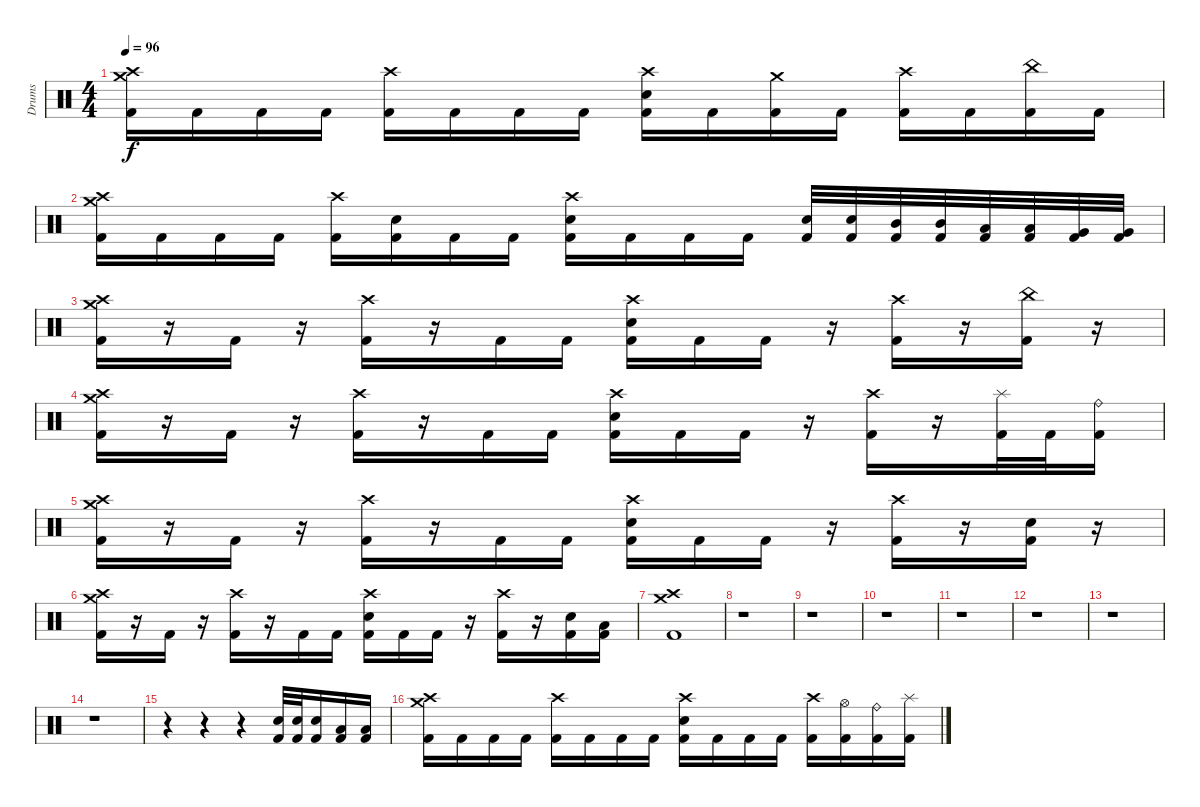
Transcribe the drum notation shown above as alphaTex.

\track ("Drums" "Drums") {instrument percussion}
\staff {score}
\articulation defaults
\ts (4 4)
\tempo 96
\clef neutral
\ks c
("Crash high (hit)" "Crash medium (hit)" "Kick (hit) 2").16{dy f} "Kick (hit) 2".16 "Kick (hit) 2".16 "Kick (hit) 2".16 ("Crash high (hit)" "Kick (hit) 2").16 "Kick (hit) 2".16 "Kick (hit) 2".16 "Kick (hit) 2".16 ("Crash high (hit)" "Electric Snare (hit)" "Kick (hit) 2").16 "Kick (hit) 2".16 ("Crash medium (hit)" "Kick (hit) 2").16 "Kick (hit) 2".16 ("Crash high (hit)" "Kick (hit) 2").16 "Kick (hit) 2".16 ("China (hit)" "Kick (hit) 2").16 "Kick (hit) 2".16 |
("Crash high (hit)" "Crash medium (hit)" "Kick (hit) 2").16 "Kick (hit) 2".16 "Kick (hit) 2".16 "Kick (hit) 2".16 ("Crash high (hit)" "Kick (hit) 2").16 ("Electric Snare (hit)" "Kick (hit) 2").16 "Kick (hit) 2".16 "Kick (hit) 2".16 ("Crash high (hit)" "Electric Snare (hit)" "Kick (hit) 2").16 "Kick (hit) 2".16 "Kick (hit) 2".16 "Kick (hit) 2".16 ("Electric Snare (hit)" "Kick (hit) 2").32 ("Electric Snare (hit)" "Kick (hit) 2").32 ("Mid Tom (hit)" "Kick (hit) 2").32 ("Mid Tom (hit)" "Kick (hit) 2").32 ("Low Tom (hit)" "Kick (hit) 2").32 ("Low Tom (hit)" "Kick (hit) 2").32 ("Very Low Tom (hit)" "Kick (hit) 2").32 ("Very Low Tom (hit)" "Kick (hit) 2").32 |
("Crash high (hit)" "Crash medium (hit)" "Kick (hit) 2").16 r.16 "Kick (hit) 2".16 r.16 ("Crash high (hit)" "Kick (hit) 2").16 r.16 "Kick (hit) 2".16 "Kick (hit) 2".16 ("Crash high (hit)" "Electric Snare (hit)" "Kick (hit) 2").16 "Kick (hit) 2".16 "Kick (hit) 2".16 r.16 ("Crash high (hit)" "Kick (hit) 2").16 r.16 ("China (hit)" "Kick (hit) 2").16 r.16 |
("Crash high (hit)" "Crash medium (hit)" "Kick (hit) 2").16 r.16 "Kick (hit) 2".16 r.16 ("Crash high (hit)" "Kick (hit) 2").16 r.16 "Kick (hit) 2".16 "Kick (hit) 2".16 ("Crash high (hit)" "Electric Snare (hit)" "Kick (hit) 2").16 "Kick (hit) 2".16 "Kick (hit) 2".16 r.16 ("Crash high (hit)" "Kick (hit) 2").16 r.16 ("Splash (hit)" "Kick (hit) 2").32 "Kick (hit) 2".32 ("Ride (bell)" "Kick (hit) 2").16 |
("Crash high (hit)" "Crash medium (hit)" "Kick (hit) 2").16 r.16 "Kick (hit) 2".16 r.16 ("Crash high (hit)" "Kick (hit) 2").16 r.16 "Kick (hit) 2".16 "Kick (hit) 2".16 ("Crash high (hit)" "Electric Snare (hit)" "Kick (hit) 2").16 "Kick (hit) 2".16 "Kick (hit) 2".16 r.16 ("Crash high (hit)" "Kick (hit) 2").16 r.16 ("Electric Snare (hit)" "Kick (hit) 2").16 r.16 |
("Crash high (hit)" "Crash medium (hit)" "Kick (hit) 2").16 r.16 "Kick (hit) 2".16 r.16 ("Crash high (hit)" "Kick (hit) 2").16 r.16 "Kick (hit) 2".16 "Kick (hit) 2".16 ("Crash high (hit)" "Electric Snare (hit)" "Kick (hit) 2").16 "Kick (hit) 2".16 "Kick (hit) 2".16 r.16 ("Crash high (hit)" "Kick (hit) 2").16 r.16 ("Electric Snare (hit)" "Kick (hit) 2").16 ("Low Tom (hit)" "Kick (hit) 2").16 |
("Crash medium (hit)" "Crash high (hit)" "Kick (hit) 2").1 |
r.1 |
r.1 |
r.1 |
r.1 |
r.1 |
r.1 |
r.1 |
r.4 r.4 r.4 ("Electric Snare (hit)" "Kick (hit) 2").32 ("Electric Snare (hit)" "Kick (hit) 2").32 ("Electric Snare (hit)" "Kick (hit) 2").16 ("Low Tom (hit)" "Kick (hit) 2").16 ("Low Tom (hit)" "Kick (hit) 2").16 |
("Crash high (hit)" "Crash medium (hit)" "Kick (hit) 2").16 "Kick (hit) 2".16 "Kick (hit) 2".16 "Kick (hit) 2".16 ("Crash high (hit)" "Kick (hit) 2").16 "Kick (hit) 2".16 "Kick (hit) 2".16 "Kick (hit) 2".16 ("Crash high (hit)" "Electric Snare (hit)" "Kick (hit) 2").16 "Kick (hit) 2".16 "Kick (hit) 2".16 "Kick (hit) 2".16 ("Crash high (hit)" "Kick (hit) 2").16 ("Hi-Hat (open)" "Kick (hit) 2").16 ("Ride (bell)" "Kick (hit) 2").16 ("Splash (hit)" "Kick (hit) 2").16
